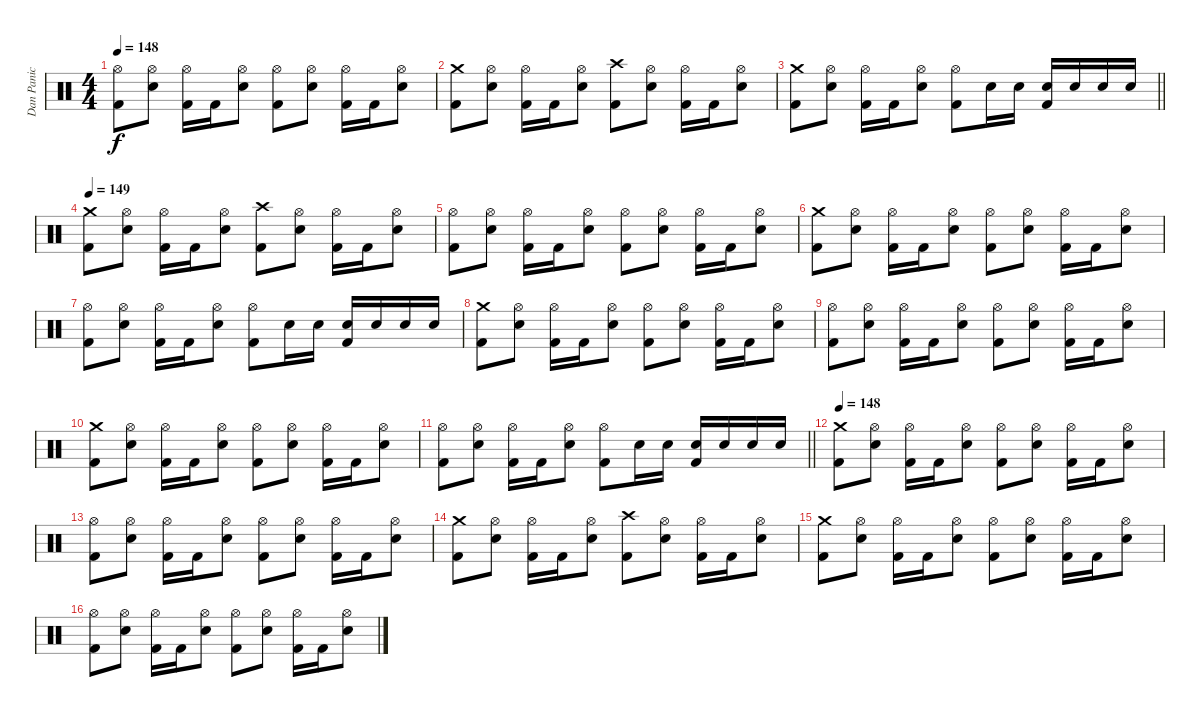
\track ("Dan Panic" "Dan Panic") {instrument percussion}
\staff {score}
\articulation defaults
\ts (4 4)
\tempo 148
\clef neutral
\ks c
("Hi-Hat (open)" "Kick (hit) 2").8{dy f} ("Hi-Hat (open)" "Electric Snare (hit)").8 ("Hi-Hat (open)" "Kick (hit) 2").16 "Kick (hit) 2".16 ("Hi-Hat (open)" "Electric Snare (hit)").8 ("Hi-Hat (open)" "Kick (hit) 2").8 ("Hi-Hat (open)" "Electric Snare (hit)").8 ("Hi-Hat (open)" "Kick (hit) 2").16 "Kick (hit) 2".16 ("Hi-Hat (open)" "Electric Snare (hit)").8 |
("Crash medium (hit)" "Kick (hit) 2").8 ("Hi-Hat (open)" "Electric Snare (hit)").8 ("Hi-Hat (open)" "Kick (hit) 2").16 "Kick (hit) 2".16 ("Hi-Hat (open)" "Electric Snare (hit)").8 ("Crash high (hit)" "Kick (hit) 2").8 ("Hi-Hat (open)" "Electric Snare (hit)").8 ("Hi-Hat (open)" "Kick (hit) 2").16 "Kick (hit) 2".16 ("Hi-Hat (open)" "Electric Snare (hit)").8 |
\barLineRight lightlight
("Crash medium (hit)" "Kick (hit) 2").8 ("Hi-Hat (open)" "Electric Snare (hit)").8 ("Hi-Hat (open)" "Kick (hit) 2").16 "Kick (hit) 2".16 ("Hi-Hat (open)" "Electric Snare (hit)").8 ("Hi-Hat (open)" "Kick (hit) 2").8 "Electric Snare (hit)".16 "Electric Snare (hit)".16 ("Electric Snare (hit)" "Kick (hit) 2").16 "Electric Snare (hit)".16 "Electric Snare (hit)".16 "Electric Snare (hit)".16 |
\section ("" "")
\tempo 149
("Crash medium (hit)" "Kick (hit) 2").8 ("Hi-Hat (open)" "Electric Snare (hit)").8 ("Hi-Hat (open)" "Kick (hit) 2").16 "Kick (hit) 2".16 ("Hi-Hat (open)" "Electric Snare (hit)").8 ("Crash high (hit)" "Kick (hit) 2").8 ("Hi-Hat (open)" "Electric Snare (hit)").8 ("Hi-Hat (open)" "Kick (hit) 2").16 "Kick (hit) 2".16 ("Hi-Hat (open)" "Electric Snare (hit)").8 |
("Hi-Hat (open)" "Kick (hit) 2").8 ("Hi-Hat (open)" "Electric Snare (hit)").8 ("Hi-Hat (open)" "Kick (hit) 2").16 "Kick (hit) 2".16 ("Hi-Hat (open)" "Electric Snare (hit)").8 ("Hi-Hat (open)" "Kick (hit) 2").8 ("Hi-Hat (open)" "Electric Snare (hit)").8 ("Hi-Hat (open)" "Kick (hit) 2").16 "Kick (hit) 2".16 ("Hi-Hat (open)" "Electric Snare (hit)").8 |
("Crash medium (hit)" "Kick (hit) 2").8 ("Hi-Hat (open)" "Electric Snare (hit)").8 ("Hi-Hat (open)" "Kick (hit) 2").16 "Kick (hit) 2".16 ("Hi-Hat (open)" "Electric Snare (hit)").8 ("Hi-Hat (open)" "Kick (hit) 2").8 ("Hi-Hat (open)" "Electric Snare (hit)").8 ("Hi-Hat (open)" "Kick (hit) 2").16 "Kick (hit) 2".16 ("Hi-Hat (open)" "Electric Snare (hit)").8 |
("Hi-Hat (open)" "Kick (hit) 2").8 ("Hi-Hat (open)" "Electric Snare (hit)").8 ("Hi-Hat (open)" "Kick (hit) 2").16 "Kick (hit) 2".16 ("Hi-Hat (open)" "Electric Snare (hit)").8 ("Hi-Hat (open)" "Kick (hit) 2").8 "Electric Snare (hit)".16 "Electric Snare (hit)".16 ("Electric Snare (hit)" "Kick (hit) 2").16 "Electric Snare (hit)".16 "Electric Snare (hit)".16 "Electric Snare (hit)".16 |
("Crash medium (hit)" "Kick (hit) 2").8 ("Hi-Hat (open)" "Electric Snare (hit)").8 ("Hi-Hat (open)" "Kick (hit) 2").16 "Kick (hit) 2".16 ("Hi-Hat (open)" "Electric Snare (hit)").8 ("Hi-Hat (open)" "Kick (hit) 2").8 ("Hi-Hat (open)" "Electric Snare (hit)").8 ("Hi-Hat (open)" "Kick (hit) 2").16 "Kick (hit) 2".16 ("Hi-Hat (open)" "Electric Snare (hit)").8 |
("Hi-Hat (open)" "Kick (hit) 2").8 ("Hi-Hat (open)" "Electric Snare (hit)").8 ("Hi-Hat (open)" "Kick (hit) 2").16 "Kick (hit) 2".16 ("Hi-Hat (open)" "Electric Snare (hit)").8 ("Hi-Hat (open)" "Kick (hit) 2").8 ("Hi-Hat (open)" "Electric Snare (hit)").8 ("Hi-Hat (open)" "Kick (hit) 2").16 "Kick (hit) 2".16 ("Hi-Hat (open)" "Electric Snare (hit)").8 |
("Crash medium (hit)" "Kick (hit) 2").8 ("Hi-Hat (open)" "Electric Snare (hit)").8 ("Hi-Hat (open)" "Kick (hit) 2").16 "Kick (hit) 2".16 ("Hi-Hat (open)" "Electric Snare (hit)").8 ("Hi-Hat (open)" "Kick (hit) 2").8 ("Hi-Hat (open)" "Electric Snare (hit)").8 ("Hi-Hat (open)" "Kick (hit) 2").16 "Kick (hit) 2".16 ("Hi-Hat (open)" "Electric Snare (hit)").8 |
\barLineRight lightlight
("Hi-Hat (open)" "Kick (hit) 2").8 ("Hi-Hat (open)" "Electric Snare (hit)").8 ("Hi-Hat (open)" "Kick (hit) 2").16 "Kick (hit) 2".16 ("Hi-Hat (open)" "Electric Snare (hit)").8 ("Hi-Hat (open)" "Kick (hit) 2").8 "Electric Snare (hit)".16 "Electric Snare (hit)".16 ("Electric Snare (hit)" "Kick (hit) 2").16 "Electric Snare (hit)".16 "Electric Snare (hit)".16 "Electric Snare (hit)".16 |
\section ("" "")
\tempo 148
("Crash medium (hit)" "Kick (hit) 2").8 ("Hi-Hat (open)" "Electric Snare (hit)").8 ("Hi-Hat (open)" "Kick (hit) 2").16 "Kick (hit) 2".16 ("Hi-Hat (open)" "Electric Snare (hit)").8 ("Hi-Hat (open)" "Kick (hit) 2").8 ("Hi-Hat (open)" "Electric Snare (hit)").8 ("Hi-Hat (open)" "Kick (hit) 2").16 "Kick (hit) 2".16 ("Hi-Hat (open)" "Electric Snare (hit)").8 |
("Hi-Hat (open)" "Kick (hit) 2").8 ("Hi-Hat (open)" "Electric Snare (hit)").8 ("Hi-Hat (open)" "Kick (hit) 2").16 "Kick (hit) 2".16 ("Hi-Hat (open)" "Electric Snare (hit)").8 ("Hi-Hat (open)" "Kick (hit) 2").8 ("Hi-Hat (open)" "Electric Snare (hit)").8 ("Hi-Hat (open)" "Kick (hit) 2").16 "Kick (hit) 2".16 ("Hi-Hat (open)" "Electric Snare (hit)").8 |
("Crash medium (hit)" "Kick (hit) 2").8 ("Hi-Hat (open)" "Electric Snare (hit)").8 ("Hi-Hat (open)" "Kick (hit) 2").16 "Kick (hit) 2".16 ("Hi-Hat (open)" "Electric Snare (hit)").8 ("Crash high (hit)" "Kick (hit) 2").8 ("Hi-Hat (open)" "Electric Snare (hit)").8 ("Hi-Hat (open)" "Kick (hit) 2").16 "Kick (hit) 2".16 ("Hi-Hat (open)" "Electric Snare (hit)").8 |
("Crash medium (hit)" "Kick (hit) 2").8 ("Hi-Hat (open)" "Electric Snare (hit)").8 ("Hi-Hat (open)" "Kick (hit) 2").16 "Kick (hit) 2".16 ("Hi-Hat (open)" "Electric Snare (hit)").8 ("Hi-Hat (open)" "Kick (hit) 2").8 ("Hi-Hat (open)" "Electric Snare (hit)").8 ("Hi-Hat (open)" "Kick (hit) 2").16 "Kick (hit) 2".16 ("Hi-Hat (open)" "Electric Snare (hit)").8 |
("Hi-Hat (open)" "Kick (hit) 2").8 ("Hi-Hat (open)" "Electric Snare (hit)").8 ("Hi-Hat (open)" "Kick (hit) 2").16 "Kick (hit) 2".16 ("Hi-Hat (open)" "Electric Snare (hit)").8 ("Hi-Hat (open)" "Kick (hit) 2").8 ("Hi-Hat (open)" "Electric Snare (hit)").8 ("Hi-Hat (open)" "Kick (hit) 2").16 "Kick (hit) 2".16 ("Hi-Hat (open)" "Electric Snare (hit)").8
